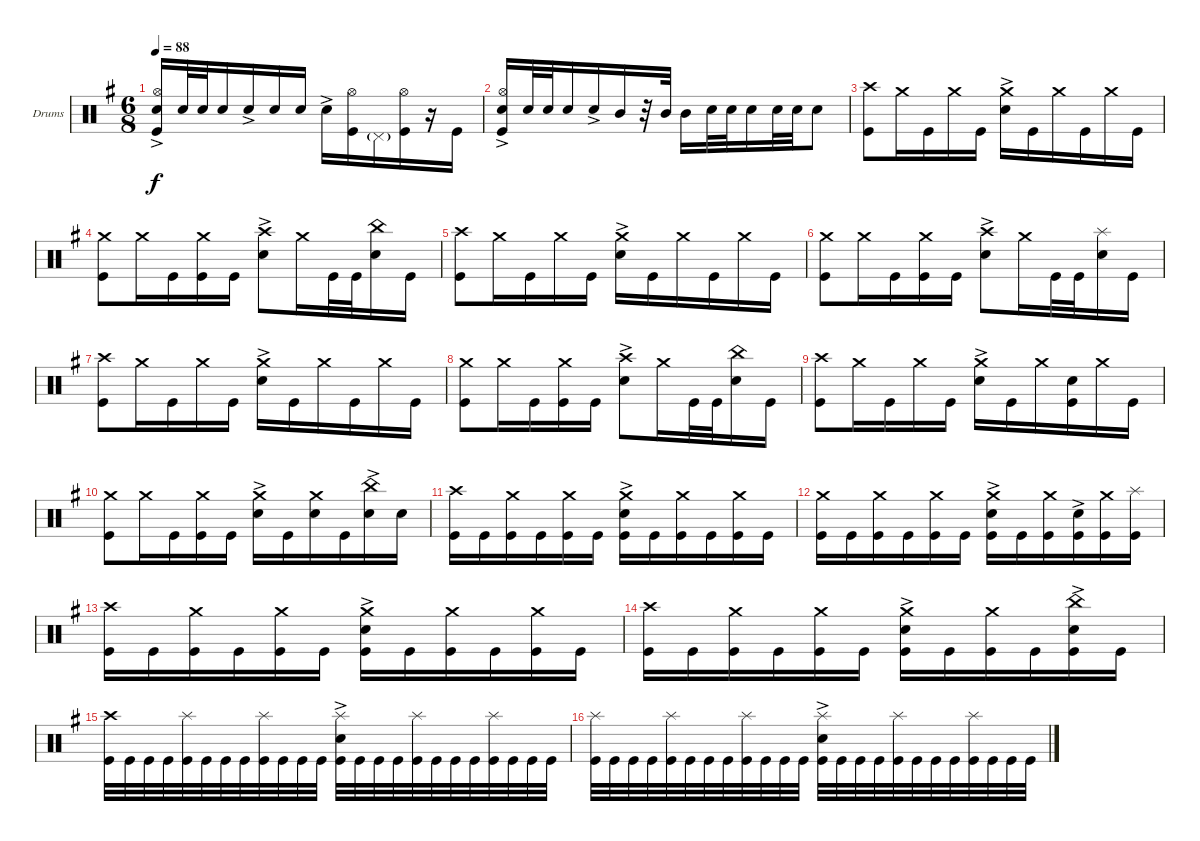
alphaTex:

\bracketExtendMode groupsimilarinstruments
\firstSystemTrackNameOrientation horizontal
\otherSystemsTrackNameOrientation horizontal
\track ("Drumkit" "Drums") {instrument percussion}
\staff {score}
\articulation defaults
\ts (6 8)
\tempo 88
\clef neutral
\ks eminor
("Snare (hit) 2"{ac} "Hi-Hat (open)" "Kick (hit)").16{dy f} "Snare (hit) 2".32 "Snare (hit) 2".32 "Snare (hit) 2".16 "Snare (hit) 2"{ac}.16 "Snare (hit) 2".16 "Snare (hit) 2".16 "Snare (hit) 2"{ac}.16 ("Kick (hit)" "Hi-Hat (open)").16 "Pedal Hi-Hat (hit)"{g}.16 ("Kick (hit)" "Hi-Hat (open)").16 r.16 "Kick (hit)".16 |
("Snare (hit) 2"{ac} "Hi-Hat (open)" "Kick (hit)").16 "Snare (hit) 2".32 "Snare (hit) 2".32 "Snare (hit) 2".16 "Snare (hit) 2"{ac}.16 "Mid Tom (hit)".16 r.32 "Mid Tom (hit)".32 "Mid Tom (hit)".16 "Snare (hit) 2".32 "Snare (hit) 2".32 "Snare (hit) 2".16 "Snare (hit) 2".32 "Snare (hit) 2".32 "Snare (hit) 2".8 |
("Crash high (hit)" "Kick (hit)").8 "Crash medium (hit)".16 "Kick (hit)".16 "Crash medium (hit)".16 "Kick (hit)".16 ("Snare (hit) 2"{ac} "Crash medium (hit)").16 "Kick (hit)".16 "Crash medium (hit)".16 "Kick (hit)".16 "Crash medium (hit)".16 "Kick (hit)".16 |
("Kick (hit)" "Crash medium (hit)").8 "Crash medium (hit)".16 "Kick (hit)".16 ("Kick (hit)" "Crash medium (hit)").16 "Kick (hit)".16 ("Crash high (hit)" "Snare (hit) 2"{ac}).8 "Crash medium (hit)".16 "Kick (hit)".32 "Kick (hit)".32 ("Snare (hit) 2" "China (hit)").16 "Kick (hit)".16 |
("Crash high (hit)" "Kick (hit)").8 "Crash medium (hit)".16 "Kick (hit)".16 "Crash medium (hit)".16 "Kick (hit)".16 ("Snare (hit) 2"{ac} "Crash medium (hit)").16 "Kick (hit)".16 "Crash medium (hit)".16 "Kick (hit)".16 "Crash medium (hit)".16 "Kick (hit)".16 |
("Kick (hit)" "Crash medium (hit)").8 "Crash medium (hit)".16 "Kick (hit)".16 ("Kick (hit)" "Crash medium (hit)").16 "Kick (hit)".16 ("Crash high (hit)" "Snare (hit) 2"{ac}).8 "Crash medium (hit)".16 "Kick (hit)".32 "Kick (hit)".32 ("Snare (hit) 2" "Splash (hit)").16 "Kick (hit)".16 |
("Crash high (hit)" "Kick (hit)").8 "Crash medium (hit)".16 "Kick (hit)".16 "Crash medium (hit)".16 "Kick (hit)".16 ("Snare (hit) 2"{ac} "Crash medium (hit)").16 "Kick (hit)".16 "Crash medium (hit)".16 "Kick (hit)".16 "Crash medium (hit)".16 "Kick (hit)".16 |
("Kick (hit)" "Crash medium (hit)").8 "Crash medium (hit)".16 "Kick (hit)".16 ("Kick (hit)" "Crash medium (hit)").16 "Kick (hit)".16 ("Crash high (hit)" "Snare (hit) 2"{ac}).8 "Crash medium (hit)".16 "Kick (hit)".32 "Kick (hit)".32 ("Snare (hit) 2" "China (hit)").16 "Kick (hit)".16 |
("Crash high (hit)" "Kick (hit)").8 "Crash medium (hit)".16 "Kick (hit)".16 "Crash medium (hit)".16 "Kick (hit)".16 ("Snare (hit) 2"{ac} "Crash medium (hit)").16 "Kick (hit)".16 "Crash medium (hit)".16 ("Kick (hit)" "Snare (hit) 2").16 "Crash medium (hit)".16 "Kick (hit)".16 |
("Kick (hit)" "Crash medium (hit)").8 "Crash medium (hit)".16 "Kick (hit)".16 ("Kick (hit)" "Crash medium (hit)").16 "Kick (hit)".16 ("Snare (hit) 2"{ac} "Crash medium (hit)").16 "Kick (hit)".16 ("Snare (hit) 2" "Crash medium (hit)").16 "Kick (hit)".16 ("Snare (hit) 2"{ac} "China (hit)").16 "Snare (hit) 2".16 |
("Kick (hit)" "Crash high (hit)").16 "Kick (hit)".16 ("Kick (hit)" "Crash medium (hit)").16 "Kick (hit)".16 ("Kick (hit)" "Crash medium (hit)").16 "Kick (hit)".16 ("Kick (hit)" "Crash medium (hit)" "Snare (hit) 2"{ac}).16 "Kick (hit)".16 ("Kick (hit)" "Crash medium (hit)").16 "Kick (hit)".16 ("Kick (hit)" "Crash medium (hit)").16 "Kick (hit)".16 |
("Kick (hit)" "Crash medium (hit)").16 "Kick (hit)".16 ("Kick (hit)" "Crash medium (hit)").16 "Kick (hit)".16 ("Kick (hit)" "Crash medium (hit)").16 "Kick (hit)".16 ("Kick (hit)" "Crash medium (hit)" "Snare (hit) 2"{ac}).16 "Kick (hit)".16 ("Kick (hit)" "Crash medium (hit)").16 ("Kick (hit)" "Snare (hit) 2"{ac}).16 ("Kick (hit)" "Crash medium (hit)").16 ("Kick (hit)" "Splash (hit)").16 |
("Kick (hit)" "Crash high (hit)").16 "Kick (hit)".16 ("Kick (hit)" "Crash medium (hit)").16 "Kick (hit)".16 ("Kick (hit)" "Crash medium (hit)").16 "Kick (hit)".16 ("Kick (hit)" "Crash medium (hit)" "Snare (hit) 2"{ac}).16 "Kick (hit)".16 ("Kick (hit)" "Crash medium (hit)").16 "Kick (hit)".16 ("Kick (hit)" "Crash medium (hit)").16 "Kick (hit)".16 |
("Kick (hit)" "Crash high (hit)").16 "Kick (hit)".16 ("Kick (hit)" "Crash medium (hit)").16 "Kick (hit)".16 ("Kick (hit)" "Crash medium (hit)").16 "Kick (hit)".16 ("Kick (hit)" "Crash medium (hit)" "Snare (hit) 2"{ac}).16 "Kick (hit)".16 ("Kick (hit)" "Crash medium (hit)").16 "Kick (hit)".16 ("Kick (hit)" "Snare (hit) 2"{ac} "China (hit)").16 "Kick (hit)".16 |
("Kick (hit)" "Crash high (hit)").32 "Kick (hit)".32 "Kick (hit)".32 "Kick (hit)".32 ("Kick (hit)" "Splash (hit)").32 "Kick (hit)".32 "Kick (hit)".32 "Kick (hit)".32 ("Kick (hit)" "Splash (hit)").32 "Kick (hit)".32 "Kick (hit)".32 "Kick (hit)".32 ("Kick (hit)" "Snare (hit) 2"{ac} "Splash (hit)").32 "Kick (hit)".32 "Kick (hit)".32 "Kick (hit)".32 ("Kick (hit)" "Splash (hit)").32 "Kick (hit)".32 "Kick (hit)".32 "Kick (hit)".32 ("Kick (hit)" "Splash (hit)").32 "Kick (hit)".32 "Kick (hit)".32 "Kick (hit)".32 |
("Kick (hit)" "Splash (hit)").32 "Kick (hit)".32 "Kick (hit)".32 "Kick (hit)".32 ("Kick (hit)" "Splash (hit)").32 "Kick (hit)".32 "Kick (hit)".32 "Kick (hit)".32 ("Kick (hit)" "Splash (hit)").32 "Kick (hit)".32 "Kick (hit)".32 "Kick (hit)".32 ("Kick (hit)" "Snare (hit) 2"{ac} "Splash (hit)").32 "Kick (hit)".32 "Kick (hit)".32 "Kick (hit)".32 ("Kick (hit)" "Splash (hit)").32 "Kick (hit)".32 "Kick (hit)".32 "Kick (hit)".32 ("Kick (hit)" "Splash (hit)").32 "Kick (hit)".32 "Kick (hit)".32 "Kick (hit)".32
